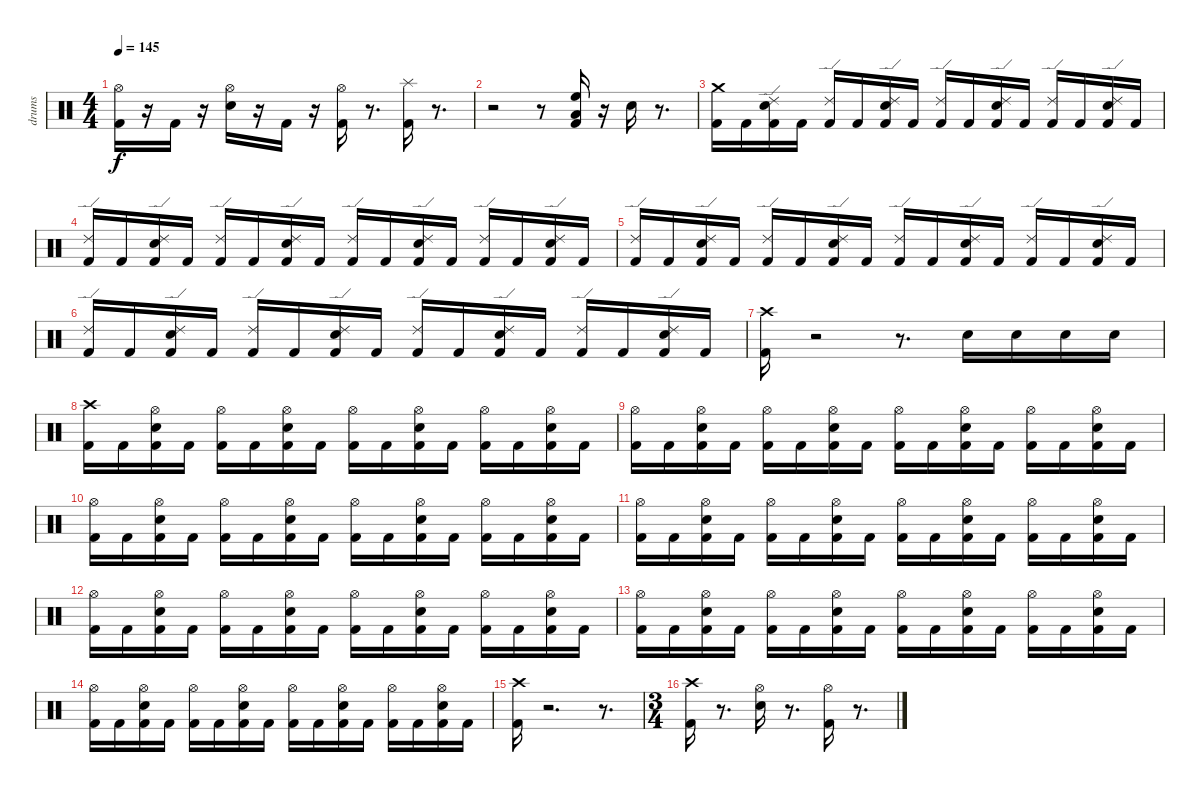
\track ("drums" "drums") {instrument percussion}
\staff {score}
\articulation defaults
\ts (4 4)
\tempo 145
\clef neutral
\ks c
("Hi-Hat (open)" "Kick (hit) 2").16{dy f} r.16 "Kick (hit) 2".16 r.16 ("Hi-Hat (open)" "Snare (hit) 2").16 r.16 "Kick (hit) 2".16 r.16 ("Hi-Hat (open)" "Kick (hit) 2").16 r.8{d} ("Splash (hit)" "Kick (hit) 2").16 r.8{d} |
r.2 r.8 ("High Floor Tom (hit)" "Low Tom (hit)" "Kick (hit) 2").16 r.16 "Snare (hit) 2".16 r.8{d} |
("Crash medium (hit)" "Kick (hit) 2").16 "Kick (hit) 2".16 ("Kick (hit) 2" "Ride (edge) 2" "Snare (hit) 2").16 "Kick (hit) 2".16 ("Ride (edge) 2" "Kick (hit) 2").16 "Kick (hit) 2".16 ("Kick (hit) 2" "Ride (edge) 2" "Snare (hit) 2").16 "Kick (hit) 2".16 ("Ride (edge) 2" "Kick (hit) 2").16 "Kick (hit) 2".16 ("Kick (hit) 2" "Ride (edge) 2" "Snare (hit) 2").16 "Kick (hit) 2".16 ("Ride (edge) 2" "Kick (hit) 2").16 "Kick (hit) 2".16 ("Kick (hit) 2" "Ride (edge) 2" "Snare (hit) 2").16 "Kick (hit) 2".16 |
("Ride (edge) 2" "Kick (hit) 2").16 "Kick (hit) 2".16 ("Kick (hit) 2" "Ride (edge) 2" "Snare (hit) 2").16 "Kick (hit) 2".16 ("Ride (edge) 2" "Kick (hit) 2").16 "Kick (hit) 2".16 ("Kick (hit) 2" "Ride (edge) 2" "Snare (hit) 2").16 "Kick (hit) 2".16 ("Ride (edge) 2" "Kick (hit) 2").16 "Kick (hit) 2".16 ("Kick (hit) 2" "Ride (edge) 2" "Snare (hit) 2").16 "Kick (hit) 2".16 ("Ride (edge) 2" "Kick (hit) 2").16 "Kick (hit) 2".16 ("Kick (hit) 2" "Ride (edge) 2" "Snare (hit) 2").16 "Kick (hit) 2".16 |
("Ride (edge) 2" "Kick (hit) 2").16 "Kick (hit) 2".16 ("Kick (hit) 2" "Ride (edge) 2" "Snare (hit) 2").16 "Kick (hit) 2".16 ("Ride (edge) 2" "Kick (hit) 2").16 "Kick (hit) 2".16 ("Kick (hit) 2" "Ride (edge) 2" "Snare (hit) 2").16 "Kick (hit) 2".16 ("Ride (edge) 2" "Kick (hit) 2").16 "Kick (hit) 2".16 ("Kick (hit) 2" "Ride (edge) 2" "Snare (hit) 2").16 "Kick (hit) 2".16 ("Ride (edge) 2" "Kick (hit) 2").16 "Kick (hit) 2".16 ("Kick (hit) 2" "Ride (edge) 2" "Snare (hit) 2").16 "Kick (hit) 2".16 |
("Ride (edge) 2" "Kick (hit) 2").16 "Kick (hit) 2".16 ("Kick (hit) 2" "Ride (edge) 2" "Snare (hit) 2").16 "Kick (hit) 2".16 ("Ride (edge) 2" "Kick (hit) 2").16 "Kick (hit) 2".16 ("Kick (hit) 2" "Ride (edge) 2" "Snare (hit) 2").16 "Kick (hit) 2".16 ("Ride (edge) 2" "Kick (hit) 2").16 "Kick (hit) 2".16 ("Kick (hit) 2" "Ride (edge) 2" "Snare (hit) 2").16 "Kick (hit) 2".16 ("Ride (edge) 2" "Kick (hit) 2").16 "Kick (hit) 2".16 ("Kick (hit) 2" "Ride (edge) 2" "Snare (hit) 2").16 "Kick (hit) 2".16 |
("Crash high (hit)" "Kick (hit) 2").16 r.2 r.8{d} "Snare (hit) 2".16 "Snare (hit) 2".16 "Snare (hit) 2".16 "Snare (hit) 2".16 |
("Crash high (hit)" "Kick (hit) 2").16 "Kick (hit) 2".16 ("Hi-Hat (open)" "Kick (hit) 2" "Snare (hit) 2").16 "Kick (hit) 2".16 ("Hi-Hat (open)" "Kick (hit) 2").16 "Kick (hit) 2".16 ("Hi-Hat (open)" "Kick (hit) 2" "Snare (hit) 2").16 "Kick (hit) 2".16 ("Hi-Hat (open)" "Kick (hit) 2").16 "Kick (hit) 2".16 ("Hi-Hat (open)" "Kick (hit) 2" "Snare (hit) 2").16 "Kick (hit) 2".16 ("Hi-Hat (open)" "Kick (hit) 2").16 "Kick (hit) 2".16 ("Hi-Hat (open)" "Kick (hit) 2" "Snare (hit) 2").16 "Kick (hit) 2".16 |
("Hi-Hat (open)" "Kick (hit) 2").16 "Kick (hit) 2".16 ("Hi-Hat (open)" "Kick (hit) 2" "Snare (hit) 2").16 "Kick (hit) 2".16 ("Hi-Hat (open)" "Kick (hit) 2").16 "Kick (hit) 2".16 ("Hi-Hat (open)" "Kick (hit) 2" "Snare (hit) 2").16 "Kick (hit) 2".16 ("Hi-Hat (open)" "Kick (hit) 2").16 "Kick (hit) 2".16 ("Hi-Hat (open)" "Kick (hit) 2" "Snare (hit) 2").16 "Kick (hit) 2".16 ("Hi-Hat (open)" "Kick (hit) 2").16 "Kick (hit) 2".16 ("Hi-Hat (open)" "Kick (hit) 2" "Snare (hit) 2").16 "Kick (hit) 2".16 |
("Hi-Hat (open)" "Kick (hit) 2").16 "Kick (hit) 2".16 ("Hi-Hat (open)" "Kick (hit) 2" "Snare (hit) 2").16 "Kick (hit) 2".16 ("Hi-Hat (open)" "Kick (hit) 2").16 "Kick (hit) 2".16 ("Hi-Hat (open)" "Kick (hit) 2" "Snare (hit) 2").16 "Kick (hit) 2".16 ("Hi-Hat (open)" "Kick (hit) 2").16 "Kick (hit) 2".16 ("Hi-Hat (open)" "Kick (hit) 2" "Snare (hit) 2").16 "Kick (hit) 2".16 ("Hi-Hat (open)" "Kick (hit) 2").16 "Kick (hit) 2".16 ("Hi-Hat (open)" "Kick (hit) 2" "Snare (hit) 2").16 "Kick (hit) 2".16 |
("Hi-Hat (open)" "Kick (hit) 2").16 "Kick (hit) 2".16 ("Hi-Hat (open)" "Kick (hit) 2" "Snare (hit) 2").16 "Kick (hit) 2".16 ("Hi-Hat (open)" "Kick (hit) 2").16 "Kick (hit) 2".16 ("Hi-Hat (open)" "Kick (hit) 2" "Snare (hit) 2").16 "Kick (hit) 2".16 ("Hi-Hat (open)" "Kick (hit) 2").16 "Kick (hit) 2".16 ("Hi-Hat (open)" "Kick (hit) 2" "Snare (hit) 2").16 "Kick (hit) 2".16 ("Hi-Hat (open)" "Kick (hit) 2").16 "Kick (hit) 2".16 ("Hi-Hat (open)" "Kick (hit) 2" "Snare (hit) 2").16 "Kick (hit) 2".16 |
("Hi-Hat (open)" "Kick (hit) 2").16 "Kick (hit) 2".16 ("Hi-Hat (open)" "Kick (hit) 2" "Snare (hit) 2").16 "Kick (hit) 2".16 ("Hi-Hat (open)" "Kick (hit) 2").16 "Kick (hit) 2".16 ("Hi-Hat (open)" "Kick (hit) 2" "Snare (hit) 2").16 "Kick (hit) 2".16 ("Hi-Hat (open)" "Kick (hit) 2").16 "Kick (hit) 2".16 ("Hi-Hat (open)" "Kick (hit) 2" "Snare (hit) 2").16 "Kick (hit) 2".16 ("Hi-Hat (open)" "Kick (hit) 2").16 "Kick (hit) 2".16 ("Hi-Hat (open)" "Kick (hit) 2" "Snare (hit) 2").16 "Kick (hit) 2".16 |
("Hi-Hat (open)" "Kick (hit) 2").16 "Kick (hit) 2".16 ("Hi-Hat (open)" "Kick (hit) 2" "Snare (hit) 2").16 "Kick (hit) 2".16 ("Hi-Hat (open)" "Kick (hit) 2").16 "Kick (hit) 2".16 ("Hi-Hat (open)" "Kick (hit) 2" "Snare (hit) 2").16 "Kick (hit) 2".16 ("Hi-Hat (open)" "Kick (hit) 2").16 "Kick (hit) 2".16 ("Hi-Hat (open)" "Kick (hit) 2" "Snare (hit) 2").16 "Kick (hit) 2".16 ("Hi-Hat (open)" "Kick (hit) 2").16 "Kick (hit) 2".16 ("Hi-Hat (open)" "Kick (hit) 2" "Snare (hit) 2").16 "Kick (hit) 2".16 |
("Hi-Hat (open)" "Kick (hit) 2").16 "Kick (hit) 2".16 ("Hi-Hat (open)" "Kick (hit) 2" "Snare (hit) 2").16 "Kick (hit) 2".16 ("Hi-Hat (open)" "Kick (hit) 2").16 "Kick (hit) 2".16 ("Hi-Hat (open)" "Kick (hit) 2" "Snare (hit) 2").16 "Kick (hit) 2".16 ("Hi-Hat (open)" "Kick (hit) 2").16 "Kick (hit) 2".16 ("Hi-Hat (open)" "Kick (hit) 2" "Snare (hit) 2").16 "Kick (hit) 2".16 ("Hi-Hat (open)" "Kick (hit) 2").16 "Kick (hit) 2".16 ("Hi-Hat (open)" "Kick (hit) 2" "Snare (hit) 2").16 "Kick (hit) 2".16 |
("Crash high (hit)" "Kick (hit) 2").16 r.2{d} r.8{d} |
\ts (3 4)
("Crash high (hit)" "Kick (hit) 2").16 r.8{d} ("Hi-Hat (open)" "Snare (hit) 2").16 r.8{d} ("Hi-Hat (open)" "Kick (hit) 2").16 r.8{d}
